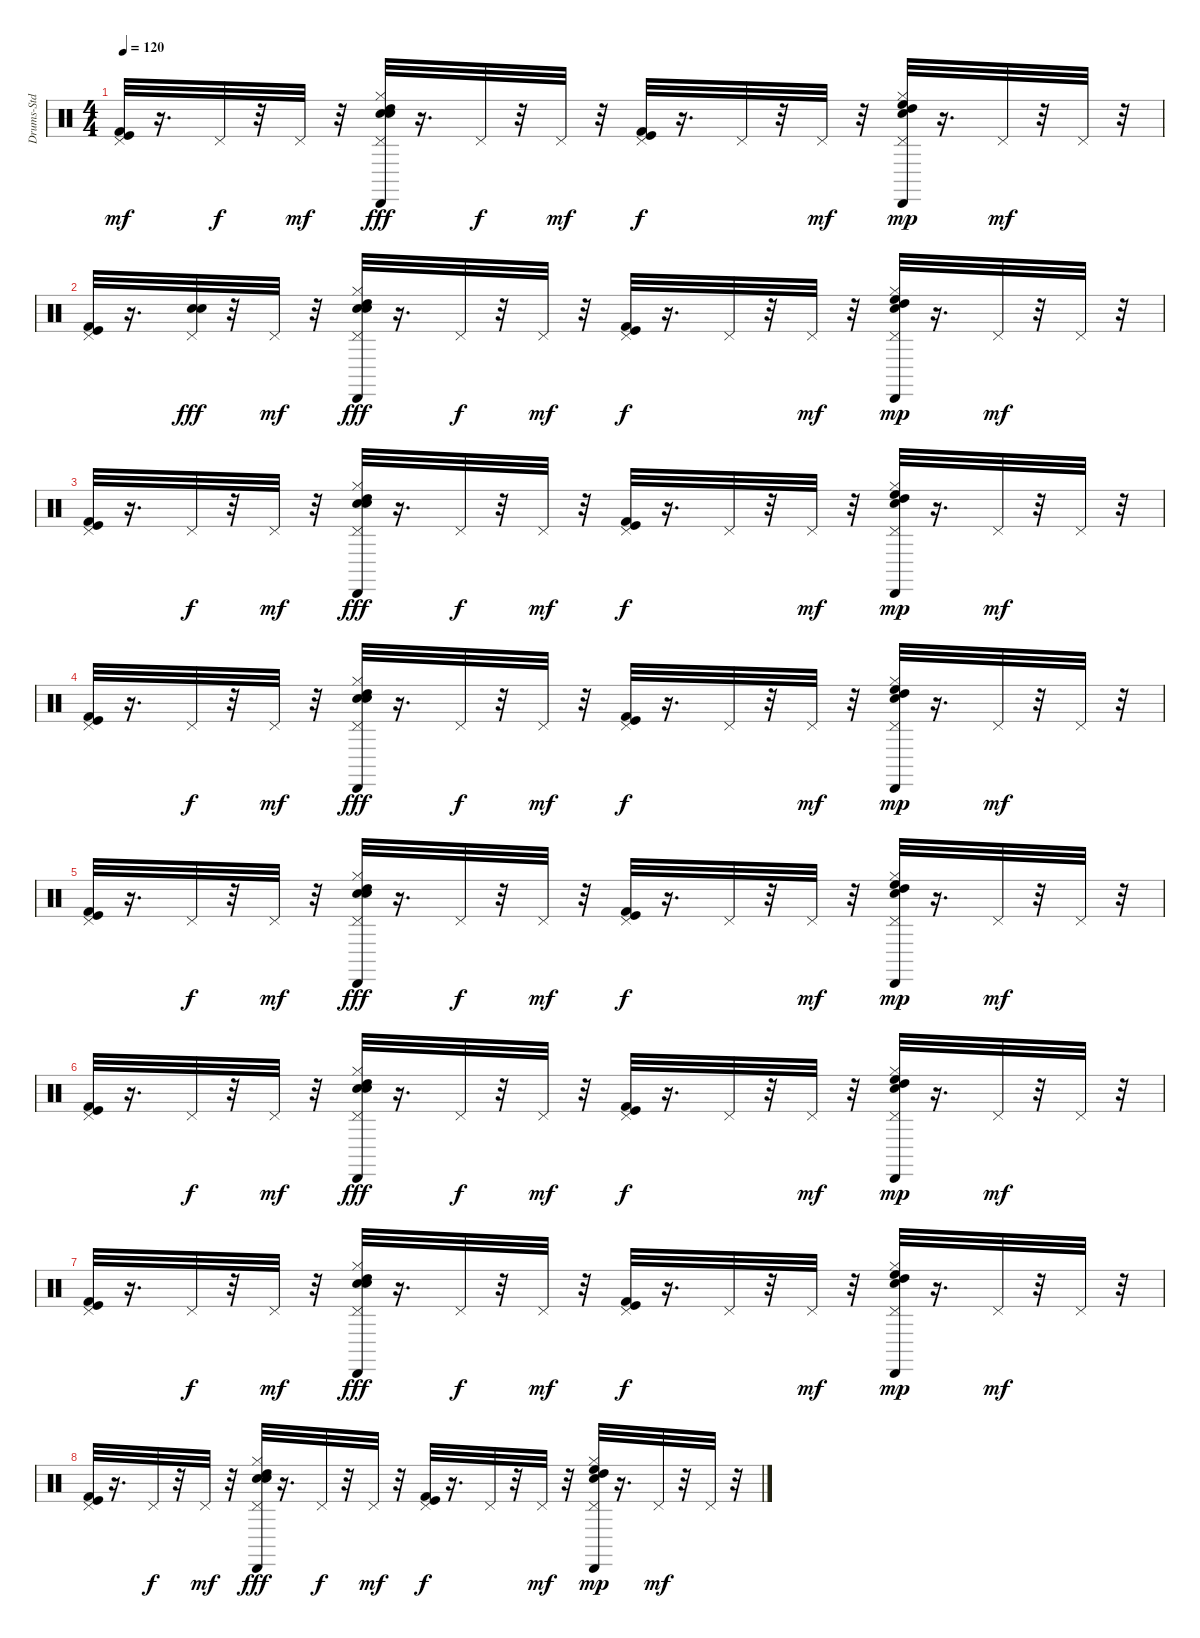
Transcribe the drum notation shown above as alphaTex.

\track ("Drums-Std" "Drums-Std") {instrument percussion}
\staff {score}
\articulation defaults
\ts (4 4)
\tempo 120
\clef neutral
\ks c
("Pedal Hi-Hat (hit)" "Kick (hit) 2" "Kick (hit)").32{dy mf} r.16{d} "Pedal Hi-Hat (hit)".32{dy f} r.32 "Pedal Hi-Hat (hit)".32{dy mf} r.32 ("Snare (hit) 2" "High Tom (hit)" "Cabasa (hit)" "Hi-Hat (closed)" "Pedal Hi-Hat (hit)" "Electric Snare (hit)").32{dy fff} r.16{d} "Pedal Hi-Hat (hit)".32{dy f} r.32 "Pedal Hi-Hat (hit)".32{dy mf} r.32 ("Pedal Hi-Hat (hit)" "Kick (hit) 2" "Kick (hit)").32{dy f} r.16{d} "Pedal Hi-Hat (hit)".32 r.32 "Pedal Hi-Hat (hit)".32{dy mf} r.32 ("Snare (hit) 2" "High Floor Tom (hit)" "High Tom (hit)" "Cabasa (hit)" "Hi-Hat (closed)" "Pedal Hi-Hat (hit)").32{dy mp} r.16{d} "Pedal Hi-Hat (hit)".32{dy mf} r.32 "Pedal Hi-Hat (hit)".32 r.32 |
("Pedal Hi-Hat (hit)" "Kick (hit) 2" "Kick (hit)").32 r.16{d} ("Electric Snare (hit)" "Snare (hit) 2" "Pedal Hi-Hat (hit)").32{dy fff} r.32 "Pedal Hi-Hat (hit)".32{dy mf} r.32 ("Snare (hit) 2" "High Tom (hit)" "Cabasa (hit)" "Hi-Hat (closed)" "Pedal Hi-Hat (hit)" "Electric Snare (hit)").32{dy fff} r.16{d} "Pedal Hi-Hat (hit)".32{dy f} r.32 "Pedal Hi-Hat (hit)".32{dy mf} r.32 ("Pedal Hi-Hat (hit)" "Kick (hit) 2" "Kick (hit)").32{dy f} r.16{d} "Pedal Hi-Hat (hit)".32 r.32 "Pedal Hi-Hat (hit)".32{dy mf} r.32 ("Snare (hit) 2" "High Floor Tom (hit)" "High Tom (hit)" "Cabasa (hit)" "Hi-Hat (closed)" "Pedal Hi-Hat (hit)").32{dy mp} r.16{d} "Pedal Hi-Hat (hit)".32{dy mf} r.32 "Pedal Hi-Hat (hit)".32 r.32 |
("Pedal Hi-Hat (hit)" "Kick (hit) 2" "Kick (hit)").32 r.16{d} "Pedal Hi-Hat (hit)".32{dy f} r.32 "Pedal Hi-Hat (hit)".32{dy mf} r.32 ("Snare (hit) 2" "High Tom (hit)" "Cabasa (hit)" "Hi-Hat (closed)" "Pedal Hi-Hat (hit)" "Electric Snare (hit)").32{dy fff} r.16{d} "Pedal Hi-Hat (hit)".32{dy f} r.32 "Pedal Hi-Hat (hit)".32{dy mf} r.32 ("Pedal Hi-Hat (hit)" "Kick (hit) 2" "Kick (hit)").32{dy f} r.16{d} "Pedal Hi-Hat (hit)".32 r.32 "Pedal Hi-Hat (hit)".32{dy mf} r.32 ("Snare (hit) 2" "High Floor Tom (hit)" "High Tom (hit)" "Cabasa (hit)" "Hi-Hat (closed)" "Pedal Hi-Hat (hit)").32{dy mp} r.16{d} "Pedal Hi-Hat (hit)".32{dy mf} r.32 "Pedal Hi-Hat (hit)".32 r.32 |
("Pedal Hi-Hat (hit)" "Kick (hit) 2" "Kick (hit)").32 r.16{d} "Pedal Hi-Hat (hit)".32{dy f} r.32 "Pedal Hi-Hat (hit)".32{dy mf} r.32 ("Snare (hit) 2" "High Tom (hit)" "Cabasa (hit)" "Hi-Hat (closed)" "Pedal Hi-Hat (hit)" "Electric Snare (hit)").32{dy fff} r.16{d} "Pedal Hi-Hat (hit)".32{dy f} r.32 "Pedal Hi-Hat (hit)".32{dy mf} r.32 ("Pedal Hi-Hat (hit)" "Kick (hit) 2" "Kick (hit)").32{dy f} r.16{d} "Pedal Hi-Hat (hit)".32 r.32 "Pedal Hi-Hat (hit)".32{dy mf} r.32 ("Snare (hit) 2" "High Floor Tom (hit)" "High Tom (hit)" "Cabasa (hit)" "Hi-Hat (closed)" "Pedal Hi-Hat (hit)").32{dy mp} r.16{d} "Pedal Hi-Hat (hit)".32{dy mf} r.32 "Pedal Hi-Hat (hit)".32 r.32 |
("Pedal Hi-Hat (hit)" "Kick (hit) 2" "Kick (hit)").32 r.16{d} "Pedal Hi-Hat (hit)".32{dy f} r.32 "Pedal Hi-Hat (hit)".32{dy mf} r.32 ("Snare (hit) 2" "High Tom (hit)" "Cabasa (hit)" "Hi-Hat (closed)" "Pedal Hi-Hat (hit)" "Electric Snare (hit)").32{dy fff} r.16{d} "Pedal Hi-Hat (hit)".32{dy f} r.32 "Pedal Hi-Hat (hit)".32{dy mf} r.32 ("Pedal Hi-Hat (hit)" "Kick (hit) 2" "Kick (hit)").32{dy f} r.16{d} "Pedal Hi-Hat (hit)".32 r.32 "Pedal Hi-Hat (hit)".32{dy mf} r.32 ("Snare (hit) 2" "High Floor Tom (hit)" "High Tom (hit)" "Cabasa (hit)" "Hi-Hat (closed)" "Pedal Hi-Hat (hit)").32{dy mp} r.16{d} "Pedal Hi-Hat (hit)".32{dy mf} r.32 "Pedal Hi-Hat (hit)".32 r.32 |
("Pedal Hi-Hat (hit)" "Kick (hit) 2" "Kick (hit)").32 r.16{d} "Pedal Hi-Hat (hit)".32{dy f} r.32 "Pedal Hi-Hat (hit)".32{dy mf} r.32 ("Snare (hit) 2" "High Tom (hit)" "Cabasa (hit)" "Hi-Hat (closed)" "Pedal Hi-Hat (hit)" "Electric Snare (hit)").32{dy fff} r.16{d} "Pedal Hi-Hat (hit)".32{dy f} r.32 "Pedal Hi-Hat (hit)".32{dy mf} r.32 ("Pedal Hi-Hat (hit)" "Kick (hit) 2" "Kick (hit)").32{dy f} r.16{d} "Pedal Hi-Hat (hit)".32 r.32 "Pedal Hi-Hat (hit)".32{dy mf} r.32 ("Snare (hit) 2" "High Floor Tom (hit)" "High Tom (hit)" "Cabasa (hit)" "Hi-Hat (closed)" "Pedal Hi-Hat (hit)").32{dy mp} r.16{d} "Pedal Hi-Hat (hit)".32{dy mf} r.32 "Pedal Hi-Hat (hit)".32 r.32 |
("Pedal Hi-Hat (hit)" "Kick (hit) 2" "Kick (hit)").32 r.16{d} "Pedal Hi-Hat (hit)".32{dy f} r.32 "Pedal Hi-Hat (hit)".32{dy mf} r.32 ("Snare (hit) 2" "High Tom (hit)" "Cabasa (hit)" "Hi-Hat (closed)" "Pedal Hi-Hat (hit)" "Electric Snare (hit)").32{dy fff} r.16{d} "Pedal Hi-Hat (hit)".32{dy f} r.32 "Pedal Hi-Hat (hit)".32{dy mf} r.32 ("Pedal Hi-Hat (hit)" "Kick (hit) 2" "Kick (hit)").32{dy f} r.16{d} "Pedal Hi-Hat (hit)".32 r.32 "Pedal Hi-Hat (hit)".32{dy mf} r.32 ("Snare (hit) 2" "High Floor Tom (hit)" "High Tom (hit)" "Cabasa (hit)" "Hi-Hat (closed)" "Pedal Hi-Hat (hit)").32{dy mp} r.16{d} "Pedal Hi-Hat (hit)".32{dy mf} r.32 "Pedal Hi-Hat (hit)".32 r.32 |
("Pedal Hi-Hat (hit)" "Kick (hit) 2" "Kick (hit)").32 r.16{d} "Pedal Hi-Hat (hit)".32{dy f} r.32 "Pedal Hi-Hat (hit)".32{dy mf} r.32 ("Snare (hit) 2" "High Tom (hit)" "Cabasa (hit)" "Hi-Hat (closed)" "Pedal Hi-Hat (hit)" "Electric Snare (hit)").32{dy fff} r.16{d} "Pedal Hi-Hat (hit)".32{dy f} r.32 "Pedal Hi-Hat (hit)".32{dy mf} r.32 ("Pedal Hi-Hat (hit)" "Kick (hit) 2" "Kick (hit)").32{dy f} r.16{d} "Pedal Hi-Hat (hit)".32 r.32 "Pedal Hi-Hat (hit)".32{dy mf} r.32 ("Snare (hit) 2" "High Floor Tom (hit)" "High Tom (hit)" "Cabasa (hit)" "Hi-Hat (closed)" "Pedal Hi-Hat (hit)").32{dy mp} r.16{d} "Pedal Hi-Hat (hit)".32{dy mf} r.32 "Pedal Hi-Hat (hit)".32 r.32
